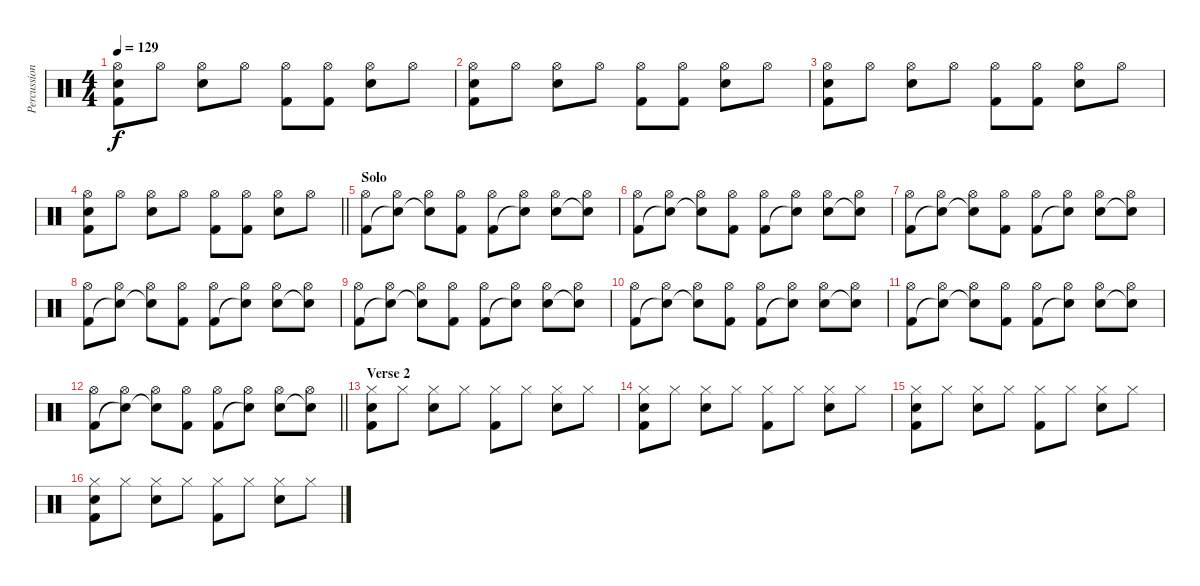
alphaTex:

\track ("Percussion" "Percussion") {instrument percussion}
\staff {score}
\articulation defaults
\ts (4 4)
\tempo 129
\clef neutral
\ks c
("Hi-Hat (open)" "Electric Snare (hit)" "Kick (hit) 2").8{dy f} "Hi-Hat (open)".8 ("Hi-Hat (open)" "Electric Snare (hit)").8 "Hi-Hat (open)".8 ("Hi-Hat (open)" "Kick (hit) 2").8 ("Hi-Hat (open)" "Kick (hit) 2").8 ("Hi-Hat (open)" "Electric Snare (hit)").8 "Hi-Hat (open)".8 |
("Hi-Hat (open)" "Electric Snare (hit)" "Kick (hit) 2").8 "Hi-Hat (open)".8 ("Hi-Hat (open)" "Electric Snare (hit)").8 "Hi-Hat (open)".8 ("Hi-Hat (open)" "Kick (hit) 2").8 ("Hi-Hat (open)" "Kick (hit) 2").8 ("Hi-Hat (open)" "Electric Snare (hit)").8 "Hi-Hat (open)".8 |
("Hi-Hat (open)" "Electric Snare (hit)" "Kick (hit) 2").8 "Hi-Hat (open)".8 ("Hi-Hat (open)" "Electric Snare (hit)").8 "Hi-Hat (open)".8 ("Hi-Hat (open)" "Kick (hit) 2").8 ("Hi-Hat (open)" "Kick (hit) 2").8 ("Hi-Hat (open)" "Electric Snare (hit)").8 "Hi-Hat (open)".8 |
\barLineRight lightlight
("Hi-Hat (open)" "Electric Snare (hit)" "Kick (hit) 2").8 "Hi-Hat (open)".8 ("Hi-Hat (open)" "Electric Snare (hit)").8 "Hi-Hat (open)".8 ("Hi-Hat (open)" "Kick (hit) 2").8 ("Hi-Hat (open)" "Kick (hit) 2").8 ("Hi-Hat (open)" "Electric Snare (hit)").8 "Hi-Hat (open)".8 |
\section ("" "Solo")
("Hi-Hat (open)" "Kick (hit) 2").8 ("Hi-Hat (open)" "Snare (hit)"{t}).8 ("Hi-Hat (open)" "Snare (hit)"{t}).8 ("Hi-Hat (open)" "Kick (hit) 2").8 ("Hi-Hat (open)" "Kick (hit) 2").8 ("Hi-Hat (open)" "Snare (hit)"{t}).8 ("Hi-Hat (open)" "Electric Snare (hit)").8 ("Hi-Hat (open)" "Snare (hit)"{t}).8 |
("Hi-Hat (open)" "Kick (hit) 2").8 ("Hi-Hat (open)" "Snare (hit)"{t}).8 ("Hi-Hat (open)" "Snare (hit)"{t}).8 ("Hi-Hat (open)" "Kick (hit) 2").8 ("Hi-Hat (open)" "Kick (hit) 2").8 ("Hi-Hat (open)" "Snare (hit)"{t}).8 ("Hi-Hat (open)" "Electric Snare (hit)").8 ("Hi-Hat (open)" "Snare (hit)"{t}).8 |
("Hi-Hat (open)" "Kick (hit) 2").8 ("Hi-Hat (open)" "Snare (hit)"{t}).8 ("Hi-Hat (open)" "Snare (hit)"{t}).8 ("Hi-Hat (open)" "Kick (hit) 2").8 ("Hi-Hat (open)" "Kick (hit) 2").8 ("Hi-Hat (open)" "Snare (hit)"{t}).8 ("Hi-Hat (open)" "Electric Snare (hit)").8 ("Hi-Hat (open)" "Snare (hit)"{t}).8 |
("Hi-Hat (open)" "Kick (hit) 2").8 ("Hi-Hat (open)" "Snare (hit)"{t}).8 ("Hi-Hat (open)" "Snare (hit)"{t}).8 ("Hi-Hat (open)" "Kick (hit) 2").8 ("Hi-Hat (open)" "Kick (hit) 2").8 ("Hi-Hat (open)" "Snare (hit)"{t}).8 ("Hi-Hat (open)" "Electric Snare (hit)").8 ("Hi-Hat (open)" "Snare (hit)"{t}).8 |
("Hi-Hat (open)" "Kick (hit) 2").8 ("Hi-Hat (open)" "Snare (hit)"{t}).8 ("Hi-Hat (open)" "Snare (hit)"{t}).8 ("Hi-Hat (open)" "Kick (hit) 2").8 ("Hi-Hat (open)" "Kick (hit) 2").8 ("Hi-Hat (open)" "Snare (hit)"{t}).8 ("Hi-Hat (open)" "Electric Snare (hit)").8 ("Hi-Hat (open)" "Snare (hit)"{t}).8 |
("Hi-Hat (open)" "Kick (hit) 2").8 ("Hi-Hat (open)" "Snare (hit)"{t}).8 ("Hi-Hat (open)" "Snare (hit)"{t}).8 ("Hi-Hat (open)" "Kick (hit) 2").8 ("Hi-Hat (open)" "Kick (hit) 2").8 ("Hi-Hat (open)" "Snare (hit)"{t}).8 ("Hi-Hat (open)" "Electric Snare (hit)").8 ("Hi-Hat (open)" "Snare (hit)"{t}).8 |
("Hi-Hat (open)" "Kick (hit) 2").8 ("Hi-Hat (open)" "Snare (hit)"{t}).8 ("Hi-Hat (open)" "Snare (hit)"{t}).8 ("Hi-Hat (open)" "Kick (hit) 2").8 ("Hi-Hat (open)" "Kick (hit) 2").8 ("Hi-Hat (open)" "Snare (hit)"{t}).8 ("Hi-Hat (open)" "Electric Snare (hit)").8 ("Hi-Hat (open)" "Snare (hit)"{t}).8 |
\barLineRight lightlight
("Hi-Hat (open)" "Kick (hit) 2").8 ("Hi-Hat (open)" "Snare (hit)"{t}).8 ("Hi-Hat (open)" "Snare (hit)"{t}).8 ("Hi-Hat (open)" "Kick (hit) 2").8 ("Hi-Hat (open)" "Kick (hit) 2").8 ("Hi-Hat (open)" "Snare (hit)"{t}).8 ("Hi-Hat (open)" "Electric Snare (hit)").8 ("Hi-Hat (open)" "Snare (hit)"{t}).8 |
\section ("" "Verse 2")
("Hi-Hat (closed)" "Electric Snare (hit)" "Kick (hit) 2").8 "Hi-Hat (closed)".8 ("Hi-Hat (closed)" "Electric Snare (hit)").8 "Hi-Hat (closed)".8 ("Hi-Hat (closed)" "Kick (hit) 2").8 "Hi-Hat (closed)".8 ("Hi-Hat (closed)" "Electric Snare (hit)").8 "Hi-Hat (closed)".8 |
("Hi-Hat (closed)" "Electric Snare (hit)" "Kick (hit) 2").8 "Hi-Hat (closed)".8 ("Hi-Hat (closed)" "Electric Snare (hit)").8 "Hi-Hat (closed)".8 ("Hi-Hat (closed)" "Kick (hit) 2").8 "Hi-Hat (closed)".8 ("Hi-Hat (closed)" "Electric Snare (hit)").8 "Hi-Hat (closed)".8 |
("Hi-Hat (closed)" "Electric Snare (hit)" "Kick (hit) 2").8 "Hi-Hat (closed)".8 ("Hi-Hat (closed)" "Electric Snare (hit)").8 "Hi-Hat (closed)".8 ("Hi-Hat (closed)" "Kick (hit) 2").8 "Hi-Hat (closed)".8 ("Hi-Hat (closed)" "Electric Snare (hit)").8 "Hi-Hat (closed)".8 |
("Hi-Hat (closed)" "Electric Snare (hit)" "Kick (hit) 2").8 "Hi-Hat (closed)".8 ("Hi-Hat (closed)" "Electric Snare (hit)").8 "Hi-Hat (closed)".8 ("Hi-Hat (closed)" "Kick (hit) 2").8 "Hi-Hat (closed)".8 ("Hi-Hat (closed)" "Electric Snare (hit)").8 "Hi-Hat (closed)".8
